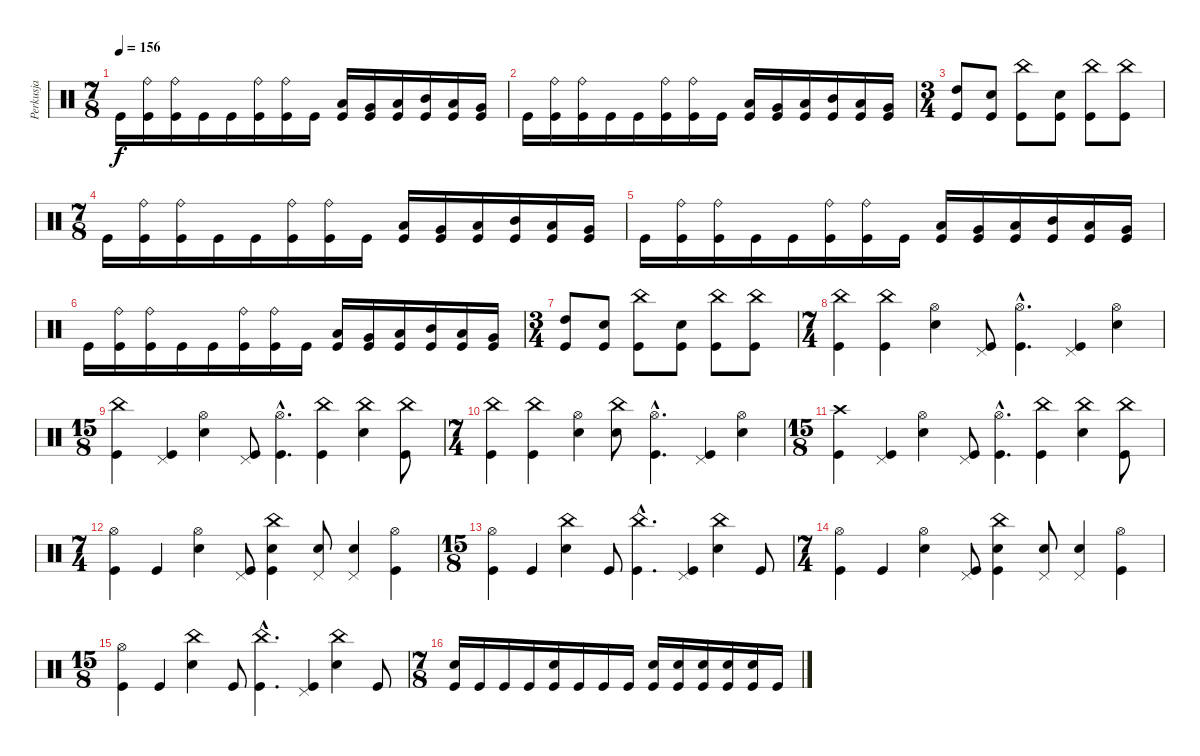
\track ("Perkusja" "Perkusja") {instrument percussion}
\staff {score}
\articulation defaults
\ts (7 8)
\tempo 156
\clef neutral
\ks c "Kick (hit)".16{dy f}
("Ride (bell)" "Kick (hit)").16 ("Ride (bell)" "Kick (hit)").16 "Kick (hit)".16 "Kick (hit)".16 ("Ride (bell)" "Kick (hit)").16 ("Ride (bell)" "Kick (hit)").16 "Kick (hit)".16 ("Low Tom (hit)" "Kick (hit)").16 ("Very Low Tom (hit)" "Kick (hit)").16 ("Low Floor Tom (hit)" "Kick (hit)").16 ("Mid Tom (hit)" "Kick (hit)").16 ("Low Tom (hit)" "Kick (hit)").16 ("Very Low Tom (hit)" "Kick (hit)").16 |
"Kick (hit)".16 ("Ride (bell)" "Kick (hit)").16 ("Ride (bell)" "Kick (hit)").16 "Kick (hit)".16 "Kick (hit)".16 ("Ride (bell)" "Kick (hit)").16 ("Ride (bell)" "Kick (hit)").16 "Kick (hit)".16 ("Low Tom (hit)" "Kick (hit)").16 ("Very Low Tom (hit)" "Kick (hit)").16 ("Low Floor Tom (hit)" "Kick (hit)").16 ("Mid Tom (hit)" "Kick (hit)").16 ("Low Tom (hit)" "Kick (hit)").16 ("Very Low Tom (hit)" "Kick (hit)").16 |
\ts (3 4)
("High Tom (hit)" "Kick (hit)").8 ("Snare (hit) 2" "Kick (hit)").8 ("China (hit)" "Kick (hit)").8 ("Snare (hit) 2" "Kick (hit)").8 ("China (hit)" "Kick (hit)").8 ("China (hit)" "Kick (hit)").8 |
\ts (7 8)
"Kick (hit)".16 ("Ride (bell)" "Kick (hit)").16 ("Ride (bell)" "Kick (hit)").16 "Kick (hit)".16 "Kick (hit)".16 ("Ride (bell)" "Kick (hit)").16 ("Ride (bell)" "Kick (hit)").16 "Kick (hit)".16 ("Low Tom (hit)" "Kick (hit)").16 ("Very Low Tom (hit)" "Kick (hit)").16 ("Low Floor Tom (hit)" "Kick (hit)").16 ("Mid Tom (hit)" "Kick (hit)").16 ("Low Tom (hit)" "Kick (hit)").16 ("Very Low Tom (hit)" "Kick (hit)").16 |
"Kick (hit)".16 ("Ride (bell)" "Kick (hit)").16 ("Ride (bell)" "Kick (hit)").16 "Kick (hit)".16 "Kick (hit)".16 ("Ride (bell)" "Kick (hit)").16 ("Ride (bell)" "Kick (hit)").16 "Kick (hit)".16 ("Low Tom (hit)" "Kick (hit)").16 ("Very Low Tom (hit)" "Kick (hit)").16 ("Low Floor Tom (hit)" "Kick (hit)").16 ("Mid Tom (hit)" "Kick (hit)").16 ("Low Tom (hit)" "Kick (hit)").16 ("Very Low Tom (hit)" "Kick (hit)").16 |
"Kick (hit)".16 ("Ride (bell)" "Kick (hit)").16 ("Ride (bell)" "Kick (hit)").16 "Kick (hit)".16 "Kick (hit)".16 ("Ride (bell)" "Kick (hit)").16 ("Ride (bell)" "Kick (hit)").16 "Kick (hit)".16 ("Low Tom (hit)" "Kick (hit)").16 ("Very Low Tom (hit)" "Kick (hit)").16 ("Low Floor Tom (hit)" "Kick (hit)").16 ("Mid Tom (hit)" "Kick (hit)").16 ("Low Tom (hit)" "Kick (hit)").16 ("Very Low Tom (hit)" "Kick (hit)").16 |
\ts (3 4)
("High Tom (hit)" "Kick (hit)").8 ("Snare (hit) 2" "Kick (hit)").8 ("China (hit)" "Kick (hit)").8 ("Snare (hit) 2" "Kick (hit)").8 ("China (hit)" "Kick (hit)").8 ("China (hit)" "Kick (hit)").8 |
\ts (7 4)
("China (hit)" "Kick (hit)").4 ("China (hit)" "Kick (hit)").4 ("Hi-Hat (open)" "Snare (hit) 2").4 ("Pedal Hi-Hat (hit)" "Kick (hit)").8 ("Hi-Hat (open)"{hac} "Kick (hit)"{hac}).4{d} ("Pedal Hi-Hat (hit)" "Kick (hit)").4 ("Hi-Hat (open)" "Snare (hit) 2").4 |
\ts (15 8)
("China (hit)" "Kick (hit)").4 ("Pedal Hi-Hat (hit)" "Kick (hit)").4 ("Hi-Hat (open)" "Snare (hit) 2").4 ("Pedal Hi-Hat (hit)" "Kick (hit)").8 ("Hi-Hat (open)"{hac} "Kick (hit)"{hac}).4{d} ("China (hit)" "Kick (hit)").4 ("China (hit)" "Snare (hit) 2").4 ("China (hit)" "Kick (hit)").8 |
\ts (7 4)
("China (hit)" "Kick (hit)").4 ("China (hit)" "Kick (hit)").4 ("Hi-Hat (open)" "Snare (hit) 2").4 ("China (hit)" "Snare (hit) 2").8 ("Hi-Hat (open)"{hac} "Kick (hit)"{hac}).4{d} ("Pedal Hi-Hat (hit)" "Kick (hit)").4 ("Hi-Hat (open)" "Snare (hit) 2").4 |
\ts (15 8)
("Crash high (hit)" "Kick (hit)").4 ("Pedal Hi-Hat (hit)" "Kick (hit)").4 ("Hi-Hat (open)" "Snare (hit) 2").4 ("Pedal Hi-Hat (hit)" "Kick (hit)").8 ("Hi-Hat (open)"{hac} "Kick (hit)"{hac}).4{d} ("China (hit)" "Kick (hit)").4 ("China (hit)" "Snare (hit) 2").4 ("China (hit)" "Kick (hit)").8 |
\ts (7 4)
("Hi-Hat (open)" "Kick (hit)").4 "Kick (hit)".4 ("Hi-Hat (open)" "Snare (hit) 2").4 ("Pedal Hi-Hat (hit)" "Kick (hit)").8 ("China (hit)" "Snare (hit) 2" "Kick (hit)").4 ("Pedal Hi-Hat (hit)" "Snare (hit) 2").8 ("Pedal Hi-Hat (hit)" "Snare (hit) 2").4 ("Hi-Hat (open)" "Kick (hit)").4 |
\ts (15 8)
("Hi-Hat (open)" "Kick (hit)").4 "Kick (hit)".4 ("China (hit)" "Snare (hit) 2").4 "Kick (hit)".8 ("China (hit)"{hac} "Kick (hit)"{hac}).4{d} ("Pedal Hi-Hat (hit)" "Kick (hit)").4 ("China (hit)" "Snare (hit) 2").4 "Kick (hit)".8 |
\ts (7 4)
("Hi-Hat (open)" "Kick (hit)").4 "Kick (hit)".4 ("Hi-Hat (open)" "Snare (hit) 2").4 ("Pedal Hi-Hat (hit)" "Kick (hit)").8 ("China (hit)" "Snare (hit) 2" "Kick (hit)").4 ("Pedal Hi-Hat (hit)" "Snare (hit) 2").8 ("Pedal Hi-Hat (hit)" "Snare (hit) 2").4 ("Hi-Hat (open)" "Kick (hit)").4 |
\ts (15 8)
("Hi-Hat (open)" "Kick (hit)").4 "Kick (hit)".4 ("China (hit)" "Snare (hit) 2").4 "Kick (hit)".8 ("China (hit)"{hac} "Kick (hit)"{hac}).4{d} ("Pedal Hi-Hat (hit)" "Kick (hit)").4 ("China (hit)" "Snare (hit) 2").4 "Kick (hit)".8 |
\ts (7 8)
("Snare (hit) 2" "Kick (hit)").16 "Kick (hit)".16 "Kick (hit)".16 "Kick (hit)".16 ("Snare (hit) 2" "Kick (hit)").16 "Kick (hit)".16 "Kick (hit)".16 "Kick (hit)".16 ("Snare (hit) 2" "Kick (hit)").16 ("Snare (hit) 2" "Kick (hit)").16 ("Snare (hit) 2" "Kick (hit)").16 ("Snare (hit) 2" "Kick (hit)").16 ("Snare (hit) 2" "Kick (hit)").16 "Kick (hit)".16
